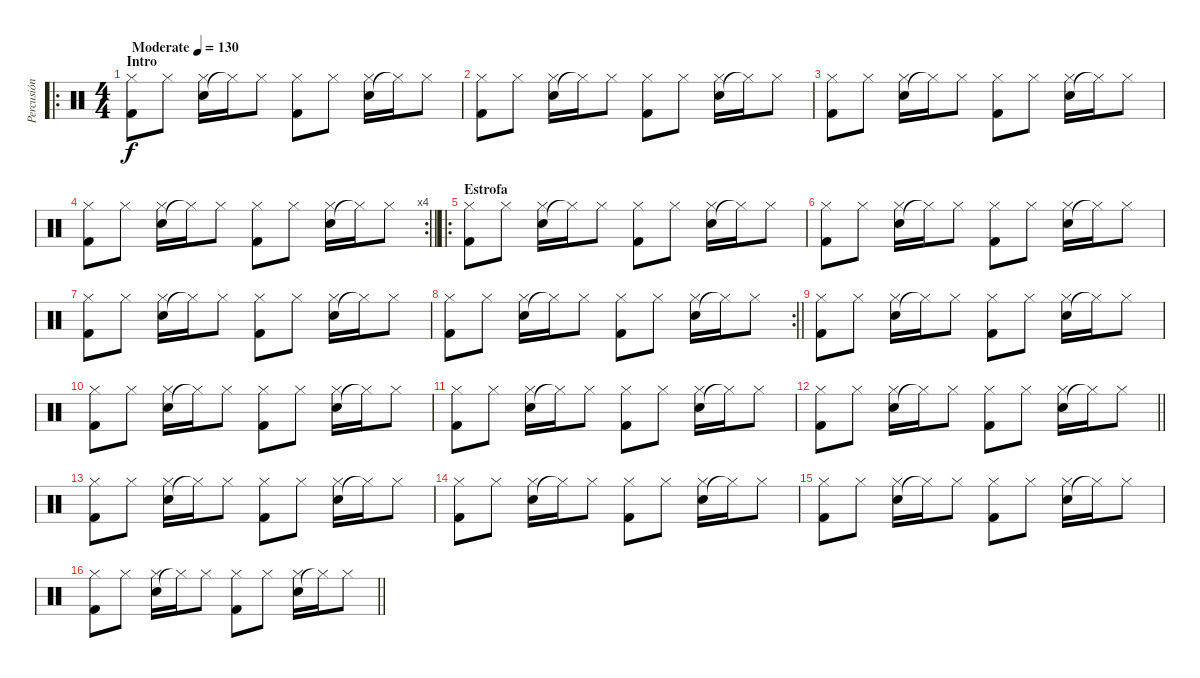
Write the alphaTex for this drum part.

\track ("Percusión" "Percusión") {instrument percussion}
\staff {score}
\articulation defaults
\ro
\ts (4 4)
\section ("" "Intro")
\tempo (130 "Moderate")
\clef neutral
\ks c
("Kick (hit) 2" "Hi-Hat (closed)").8{dy f} "Hi-Hat (closed)".8 ("Snare (hit) 2" "Hi-Hat (closed)").16 "Hi-Hat (closed)"{t}.16 "Hi-Hat (closed)".8 ("Kick (hit) 2" "Hi-Hat (closed)").8 "Hi-Hat (closed)".8 ("Snare (hit) 2" "Hi-Hat (closed)").16 "Hi-Hat (closed)"{t}.16 "Hi-Hat (closed)".8 |
("Kick (hit) 2" "Hi-Hat (closed)").8 "Hi-Hat (closed)".8 ("Snare (hit) 2" "Hi-Hat (closed)").16 "Hi-Hat (closed)"{t}.16 "Hi-Hat (closed)".8 ("Kick (hit) 2" "Hi-Hat (closed)").8 "Hi-Hat (closed)".8 ("Snare (hit) 2" "Hi-Hat (closed)").16 "Hi-Hat (closed)"{t}.16 "Hi-Hat (closed)".8 |
("Kick (hit) 2" "Hi-Hat (closed)").8 "Hi-Hat (closed)".8 ("Snare (hit) 2" "Hi-Hat (closed)").16 "Hi-Hat (closed)"{t}.16 "Hi-Hat (closed)".8 ("Kick (hit) 2" "Hi-Hat (closed)").8 "Hi-Hat (closed)".8 ("Snare (hit) 2" "Hi-Hat (closed)").16 "Hi-Hat (closed)"{t}.16 "Hi-Hat (closed)".8 |
\rc 4
\barLineRight lightlight
("Kick (hit) 2" "Hi-Hat (closed)").8 "Hi-Hat (closed)".8 ("Snare (hit) 2" "Hi-Hat (closed)").16 "Hi-Hat (closed)"{t}.16 "Hi-Hat (closed)".8 ("Kick (hit) 2" "Hi-Hat (closed)").8 "Hi-Hat (closed)".8 ("Snare (hit) 2" "Hi-Hat (closed)").16 "Hi-Hat (closed)"{t}.16 "Hi-Hat (closed)".8 |
\ro
\section ("" "Estrofa")
("Kick (hit) 2" "Hi-Hat (closed)").8 "Hi-Hat (closed)".8 ("Snare (hit) 2" "Hi-Hat (closed)").16 "Hi-Hat (closed)"{t}.16 "Hi-Hat (closed)".8 ("Kick (hit) 2" "Hi-Hat (closed)").8 "Hi-Hat (closed)".8 ("Snare (hit) 2" "Hi-Hat (closed)").16 "Hi-Hat (closed)"{t}.16 "Hi-Hat (closed)".8 |
("Kick (hit) 2" "Hi-Hat (closed)").8 "Hi-Hat (closed)".8 ("Snare (hit) 2" "Hi-Hat (closed)").16 "Hi-Hat (closed)"{t}.16 "Hi-Hat (closed)".8 ("Kick (hit) 2" "Hi-Hat (closed)").8 "Hi-Hat (closed)".8 ("Snare (hit) 2" "Hi-Hat (closed)").16 "Hi-Hat (closed)"{t}.16 "Hi-Hat (closed)".8 |
("Kick (hit) 2" "Hi-Hat (closed)").8 "Hi-Hat (closed)".8 ("Snare (hit) 2" "Hi-Hat (closed)").16 "Hi-Hat (closed)"{t}.16 "Hi-Hat (closed)".8 ("Kick (hit) 2" "Hi-Hat (closed)").8 "Hi-Hat (closed)".8 ("Snare (hit) 2" "Hi-Hat (closed)").16 "Hi-Hat (closed)"{t}.16 "Hi-Hat (closed)".8 |
\rc 2
\barLineRight lightlight
("Kick (hit) 2" "Hi-Hat (closed)").8 "Hi-Hat (closed)".8 ("Snare (hit) 2" "Hi-Hat (closed)").16 "Hi-Hat (closed)"{t}.16 "Hi-Hat (closed)".8 ("Kick (hit) 2" "Hi-Hat (closed)").8 "Hi-Hat (closed)".8 ("Snare (hit) 2" "Hi-Hat (closed)").16 "Hi-Hat (closed)"{t}.16 "Hi-Hat (closed)".8 |
("Kick (hit) 2" "Hi-Hat (closed)").8 "Hi-Hat (closed)".8 ("Snare (hit) 2" "Hi-Hat (closed)").16 "Hi-Hat (closed)"{t}.16 "Hi-Hat (closed)".8 ("Kick (hit) 2" "Hi-Hat (closed)").8 "Hi-Hat (closed)".8 ("Snare (hit) 2" "Hi-Hat (closed)").16 "Hi-Hat (closed)"{t}.16 "Hi-Hat (closed)".8 |
("Kick (hit) 2" "Hi-Hat (closed)").8 "Hi-Hat (closed)".8 ("Snare (hit) 2" "Hi-Hat (closed)").16 "Hi-Hat (closed)"{t}.16 "Hi-Hat (closed)".8 ("Kick (hit) 2" "Hi-Hat (closed)").8 "Hi-Hat (closed)".8 ("Snare (hit) 2" "Hi-Hat (closed)").16 "Hi-Hat (closed)"{t}.16 "Hi-Hat (closed)".8 |
("Kick (hit) 2" "Hi-Hat (closed)").8 "Hi-Hat (closed)".8 ("Snare (hit) 2" "Hi-Hat (closed)").16 "Hi-Hat (closed)"{t}.16 "Hi-Hat (closed)".8 ("Kick (hit) 2" "Hi-Hat (closed)").8 "Hi-Hat (closed)".8 ("Snare (hit) 2" "Hi-Hat (closed)").16 "Hi-Hat (closed)"{t}.16 "Hi-Hat (closed)".8 |
\barLineRight lightlight
("Kick (hit) 2" "Hi-Hat (closed)").8 "Hi-Hat (closed)".8 ("Snare (hit) 2" "Hi-Hat (closed)").16 "Hi-Hat (closed)"{t}.16 "Hi-Hat (closed)".8 ("Kick (hit) 2" "Hi-Hat (closed)").8 "Hi-Hat (closed)".8 ("Snare (hit) 2" "Hi-Hat (closed)").16 "Hi-Hat (closed)"{t}.16 "Hi-Hat (closed)".8 |
("Kick (hit) 2" "Hi-Hat (closed)").8 "Hi-Hat (closed)".8 ("Snare (hit) 2" "Hi-Hat (closed)").16 "Hi-Hat (closed)"{t}.16 "Hi-Hat (closed)".8 ("Kick (hit) 2" "Hi-Hat (closed)").8 "Hi-Hat (closed)".8 ("Snare (hit) 2" "Hi-Hat (closed)").16 "Hi-Hat (closed)"{t}.16 "Hi-Hat (closed)".8 |
("Kick (hit) 2" "Hi-Hat (closed)").8 "Hi-Hat (closed)".8 ("Snare (hit) 2" "Hi-Hat (closed)").16 "Hi-Hat (closed)"{t}.16 "Hi-Hat (closed)".8 ("Kick (hit) 2" "Hi-Hat (closed)").8 "Hi-Hat (closed)".8 ("Snare (hit) 2" "Hi-Hat (closed)").16 "Hi-Hat (closed)"{t}.16 "Hi-Hat (closed)".8 |
("Kick (hit) 2" "Hi-Hat (closed)").8 "Hi-Hat (closed)".8 ("Snare (hit) 2" "Hi-Hat (closed)").16 "Hi-Hat (closed)"{t}.16 "Hi-Hat (closed)".8 ("Kick (hit) 2" "Hi-Hat (closed)").8 "Hi-Hat (closed)".8 ("Snare (hit) 2" "Hi-Hat (closed)").16 "Hi-Hat (closed)"{t}.16 "Hi-Hat (closed)".8 |
\barLineRight lightlight
("Kick (hit) 2" "Hi-Hat (closed)").8 "Hi-Hat (closed)".8 ("Snare (hit) 2" "Hi-Hat (closed)").16 "Hi-Hat (closed)"{t}.16 "Hi-Hat (closed)".8 ("Kick (hit) 2" "Hi-Hat (closed)").8 "Hi-Hat (closed)".8 ("Snare (hit) 2" "Hi-Hat (closed)").16 "Hi-Hat (closed)"{t}.16 "Hi-Hat (closed)".8
